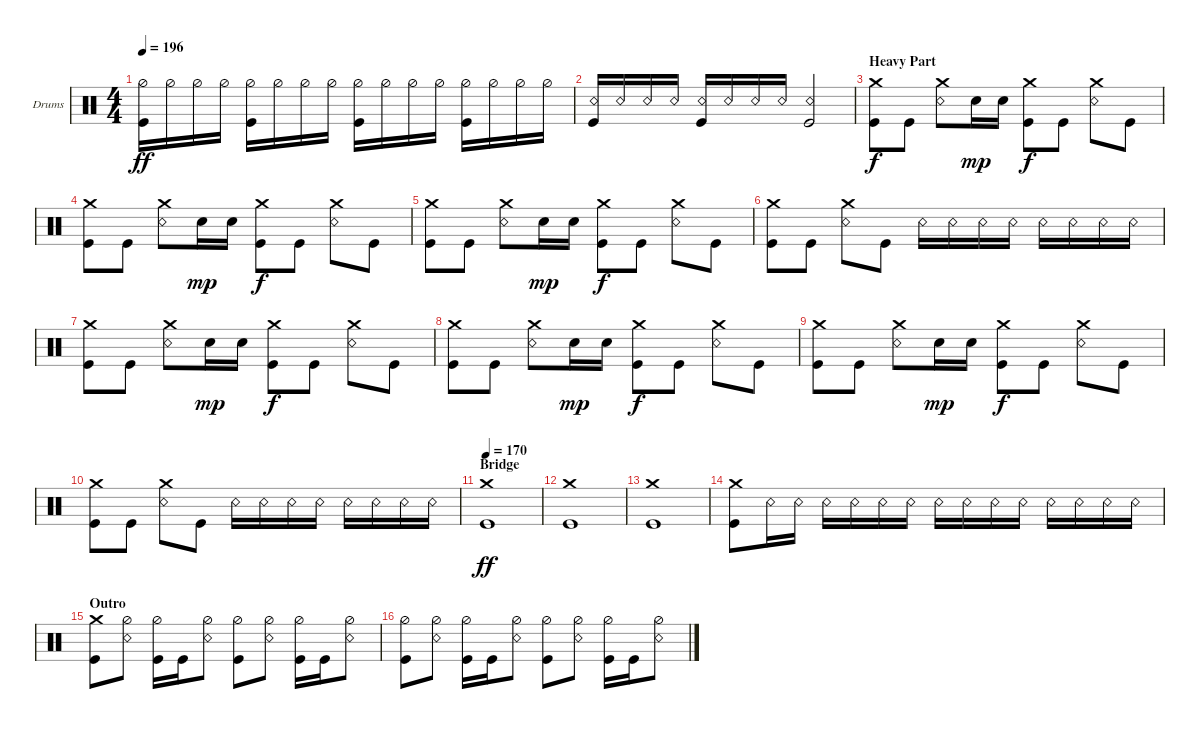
\defaultSystemsLayout 4
\bracketExtendMode groupsimilarinstruments
\firstSystemTrackNameOrientation horizontal
\otherSystemsTrackNameOrientation horizontal
\track ("Nao - Drums" "Drums") {instrument percussion}
\staff {score}
\articulation defaults
\ts (4 4)
\tempo 196
\clef neutral
\ks c
("Hi-Hat (half)" "Kick (hit)").16{dy ff} "Hi-Hat (half)".16 "Hi-Hat (half)".16 "Hi-Hat (half)".16 ("Hi-Hat (half)" "Kick (hit)").16 "Hi-Hat (half)".16 "Hi-Hat (half)".16 "Hi-Hat (half)".16 ("Hi-Hat (half)" "Kick (hit)").16 "Hi-Hat (half)".16 "Hi-Hat (half)".16 "Hi-Hat (half)".16 ("Hi-Hat (half)" "Kick (hit)").16 "Hi-Hat (half)".16 "Hi-Hat (half)".16 "Hi-Hat (half)".16 |
("Snare (rim shot)" "Kick (hit)").16 "Snare (rim shot)".16 "Snare (rim shot)".16 "Snare (rim shot)".16 ("Snare (rim shot)" "Kick (hit)").16 "Snare (rim shot)".16 "Snare (rim shot)".16 "Snare (rim shot)".16 ("Snare (rim shot)" "Kick (hit)").2 |
\section ("" "Heavy Part")
("Crash medium (hit)" "Kick (hit)").8{dy f} "Kick (hit)".8 ("Snare (rim shot)" "Crash medium (hit)").8 "Snare (hit) 2".16{dy mp} "Snare (hit) 2".16 ("Kick (hit)" "Crash medium (hit)").8{dy f} "Kick (hit)".8 ("Snare (rim shot)" "Crash medium (hit)").8 "Kick (hit)".8 |
("Crash medium (hit)" "Kick (hit)").8 "Kick (hit)".8 ("Snare (rim shot)" "Crash medium (hit)").8 "Snare (hit) 2".16{dy mp} "Snare (hit) 2".16 ("Kick (hit)" "Crash medium (hit)").8{dy f} "Kick (hit)".8 ("Snare (rim shot)" "Crash medium (hit)").8 "Kick (hit)".8 |
("Crash medium (hit)" "Kick (hit)").8 "Kick (hit)".8 ("Snare (rim shot)" "Crash medium (hit)").8 "Snare (hit) 2".16{dy mp} "Snare (hit) 2".16 ("Kick (hit)" "Crash medium (hit)").8{dy f} "Kick (hit)".8 ("Snare (rim shot)" "Crash medium (hit)").8 "Kick (hit)".8 |
("Crash medium (hit)" "Kick (hit)").8 "Kick (hit)".8 ("Snare (rim shot)" "Crash medium (hit)").8 "Kick (hit)".8 "Snare (rim shot)".16 "Snare (rim shot)".16 "Snare (rim shot)".16 "Snare (rim shot)".16 "Snare (rim shot)".16 "Snare (rim shot)".16 "Snare (rim shot)".16 "Snare (rim shot)".16 |
("Crash medium (hit)" "Kick (hit)").8 "Kick (hit)".8 ("Snare (rim shot)" "Crash medium (hit)").8 "Snare (hit) 2".16{dy mp} "Snare (hit) 2".16 ("Kick (hit)" "Crash medium (hit)").8{dy f} "Kick (hit)".8 ("Snare (rim shot)" "Crash medium (hit)").8 "Kick (hit)".8 |
("Crash medium (hit)" "Kick (hit)").8 "Kick (hit)".8 ("Snare (rim shot)" "Crash medium (hit)").8 "Snare (hit) 2".16{dy mp} "Snare (hit) 2".16 ("Kick (hit)" "Crash medium (hit)").8{dy f} "Kick (hit)".8 ("Snare (rim shot)" "Crash medium (hit)").8 "Kick (hit)".8 |
("Crash medium (hit)" "Kick (hit)").8 "Kick (hit)".8 ("Snare (rim shot)" "Crash medium (hit)").8 "Snare (hit) 2".16{dy mp} "Snare (hit) 2".16 ("Kick (hit)" "Crash medium (hit)").8{dy f} "Kick (hit)".8 ("Snare (rim shot)" "Crash medium (hit)").8 "Kick (hit)".8 |
("Crash medium (hit)" "Kick (hit)").8 "Kick (hit)".8 ("Snare (rim shot)" "Crash medium (hit)").8 "Kick (hit)".8 "Snare (rim shot)".16 "Snare (rim shot)".16 "Snare (rim shot)".16 "Snare (rim shot)".16 "Snare (rim shot)".16 "Snare (rim shot)".16 "Snare (rim shot)".16 "Snare (rim shot)".16 |
\section ("" "Bridge")
\tempo 170
("Crash medium (hit)" "Kick (hit)").1{dy ff} |
("Crash medium (hit)" "Kick (hit)").1 |
("Crash medium (hit)" "Kick (hit)").1 |
("Crash medium (hit)" "Kick (hit)").8 "Snare (rim shot)".16 "Snare (rim shot)".16 "Snare (rim shot)".16 "Snare (rim shot)".16 "Snare (rim shot)".16 "Snare (rim shot)".16 "Snare (rim shot)".16 "Snare (rim shot)".16 "Snare (rim shot)".16 "Snare (rim shot)".16 "Snare (rim shot)".16 "Snare (rim shot)".16 "Snare (rim shot)".16 "Snare (rim shot)".16 |
\section ("" "Outro")
("Kick (hit)" "Crash medium (hit)").8 ("Snare (rim shot)" "Hi-Hat (half)").8 ("Hi-Hat (half)" "Kick (hit)").16 "Kick (hit)".16 ("Hi-Hat (half)" "Snare (rim shot)").8 ("Hi-Hat (half)" "Kick (hit)").8 ("Snare (rim shot)" "Hi-Hat (half)").8 ("Hi-Hat (half)" "Kick (hit)").16 "Kick (hit)".16 ("Hi-Hat (half)" "Snare (rim shot)").8 |
("Hi-Hat (half)" "Kick (hit)").8 ("Snare (rim shot)" "Hi-Hat (half)").8 ("Hi-Hat (half)" "Kick (hit)").16 "Kick (hit)".16 ("Hi-Hat (half)" "Snare (rim shot)").8 ("Hi-Hat (half)" "Kick (hit)").8 ("Snare (rim shot)" "Hi-Hat (half)").8 ("Hi-Hat (half)" "Kick (hit)").16 "Kick (hit)".16 ("Hi-Hat (half)" "Snare (rim shot)").8
